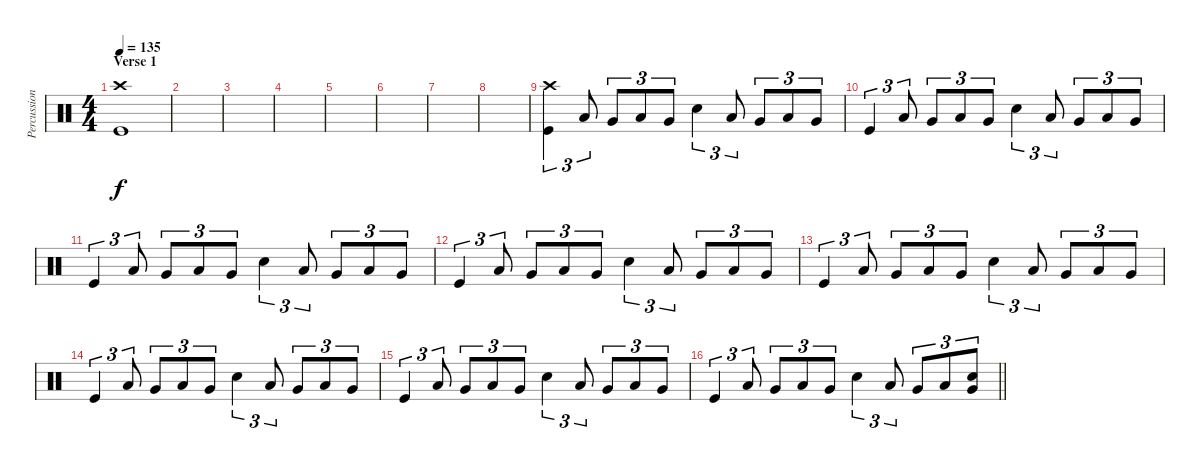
\track ("Percussion" "Percussion") {instrument percussion}
\staff {score}
\articulation defaults
\ts (4 4)
\section ("" "Verse 1")
\tempo 135
\clef neutral
\ks c
("Crash high (hit)" "Kick (hit)").1{dy f} |
|
|
|
|
|
|
|
("Crash high (hit)" "Kick (hit)").4{tu (3 2)} "Low Floor Tom (hit)".8{tu (3 2)} "Very Low Tom (hit)".8{tu (3 2)} "Low Floor Tom (hit)".8{tu (3 2)} "Very Low Tom (hit)".8{tu (3 2)} "Snare (hit) 2".4{tu (3 2)} "Low Floor Tom (hit)".8{tu (3 2)} "Very Low Tom (hit)".8{tu (3 2)} "Low Floor Tom (hit)".8{tu (3 2)} "Very Low Tom (hit)".8{tu (3 2)} |
"Kick (hit)".4{tu (3 2)} "Low Floor Tom (hit)".8{tu (3 2)} "Very Low Tom (hit)".8{tu (3 2)} "Low Floor Tom (hit)".8{tu (3 2)} "Very Low Tom (hit)".8{tu (3 2)} "Snare (hit) 2".4{tu (3 2)} "Low Floor Tom (hit)".8{tu (3 2)} "Very Low Tom (hit)".8{tu (3 2)} "Low Floor Tom (hit)".8{tu (3 2)} "Very Low Tom (hit)".8{tu (3 2)} |
"Kick (hit)".4{tu (3 2)} "Low Floor Tom (hit)".8{tu (3 2)} "Very Low Tom (hit)".8{tu (3 2)} "Low Floor Tom (hit)".8{tu (3 2)} "Very Low Tom (hit)".8{tu (3 2)} "Snare (hit) 2".4{tu (3 2)} "Low Floor Tom (hit)".8{tu (3 2)} "Very Low Tom (hit)".8{tu (3 2)} "Low Floor Tom (hit)".8{tu (3 2)} "Very Low Tom (hit)".8{tu (3 2)} |
"Kick (hit)".4{tu (3 2)} "Low Floor Tom (hit)".8{tu (3 2)} "Very Low Tom (hit)".8{tu (3 2)} "Low Floor Tom (hit)".8{tu (3 2)} "Very Low Tom (hit)".8{tu (3 2)} "Snare (hit) 2".4{tu (3 2)} "Low Floor Tom (hit)".8{tu (3 2)} "Very Low Tom (hit)".8{tu (3 2)} "Low Floor Tom (hit)".8{tu (3 2)} "Very Low Tom (hit)".8{tu (3 2)} |
"Kick (hit)".4{tu (3 2)} "Low Floor Tom (hit)".8{tu (3 2)} "Very Low Tom (hit)".8{tu (3 2)} "Low Floor Tom (hit)".8{tu (3 2)} "Very Low Tom (hit)".8{tu (3 2)} "Snare (hit) 2".4{tu (3 2)} "Low Floor Tom (hit)".8{tu (3 2)} "Very Low Tom (hit)".8{tu (3 2)} "Low Floor Tom (hit)".8{tu (3 2)} "Very Low Tom (hit)".8{tu (3 2)} |
"Kick (hit)".4{tu (3 2)} "Low Floor Tom (hit)".8{tu (3 2)} "Very Low Tom (hit)".8{tu (3 2)} "Low Floor Tom (hit)".8{tu (3 2)} "Very Low Tom (hit)".8{tu (3 2)} "Snare (hit) 2".4{tu (3 2)} "Low Floor Tom (hit)".8{tu (3 2)} "Very Low Tom (hit)".8{tu (3 2)} "Low Floor Tom (hit)".8{tu (3 2)} "Very Low Tom (hit)".8{tu (3 2)} |
"Kick (hit)".4{tu (3 2)} "Low Floor Tom (hit)".8{tu (3 2)} "Very Low Tom (hit)".8{tu (3 2)} "Low Floor Tom (hit)".8{tu (3 2)} "Very Low Tom (hit)".8{tu (3 2)} "Snare (hit) 2".4{tu (3 2)} "Low Floor Tom (hit)".8{tu (3 2)} "Very Low Tom (hit)".8{tu (3 2)} "Low Floor Tom (hit)".8{tu (3 2)} "Very Low Tom (hit)".8{tu (3 2)} |
\barLineRight lightlight "Kick (hit)".4{tu (3 2)} "Low Floor Tom (hit)".8{tu (3 2)} "Very Low Tom (hit)".8{tu (3 2)} "Low Floor Tom (hit)".8{tu (3 2)} "Very Low Tom (hit)".8{tu (3 2)} "Snare (hit) 2".4{tu (3 2)} "Low Floor Tom (hit)".8{tu (3 2)} "Very Low Tom (hit)".8{tu (3 2)} "Low Floor Tom (hit)".8{tu (3 2)}
("Very Low Tom (hit)" "Snare (hit) 2").8{tu (3 2)}
